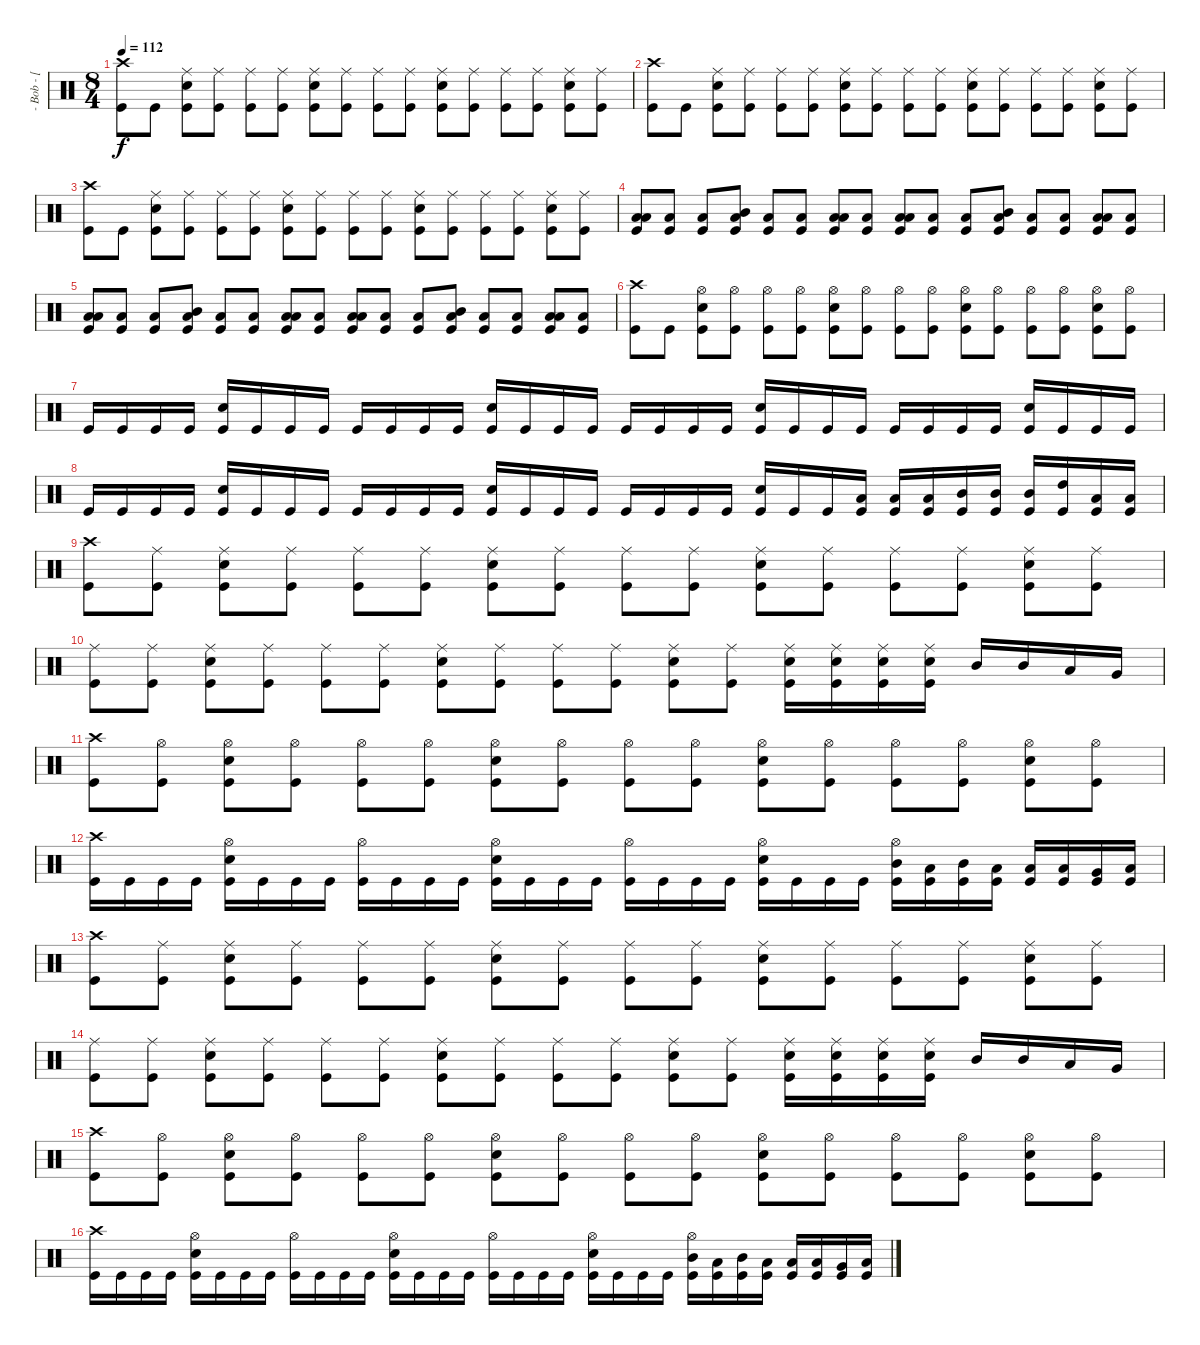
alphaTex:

\track ("- Bob - [ Drum ]" "- Bob - [ ") {instrument percussion}
\staff {score}
\articulation defaults
\ts (8 4)
\tempo 112
\clef neutral
\ks c
("Kick (hit)" "Crash high (hit)").8{dy f} "Kick (hit)".8 ("Kick (hit)" "Snare (hit) 2" "Ride (middle)").8 ("Kick (hit)" "Ride (middle)").8 ("Kick (hit)" "Ride (middle)").8 ("Kick (hit)" "Ride (middle)").8 ("Kick (hit)" "Snare (hit) 2" "Ride (middle)").8 ("Kick (hit)" "Ride (middle)").8 ("Kick (hit)" "Ride (middle)").8 ("Kick (hit)" "Ride (middle)").8 ("Kick (hit)" "Snare (hit) 2" "Ride (middle)").8 ("Kick (hit)" "Ride (middle)").8 ("Kick (hit)" "Ride (middle)").8 ("Kick (hit)" "Ride (middle)").8 ("Kick (hit)" "Snare (hit) 2" "Ride (middle)").8 ("Kick (hit)" "Ride (middle)").8 |
("Kick (hit)" "Crash high (hit)").8 "Kick (hit)".8 ("Kick (hit)" "Snare (hit) 2" "Ride (middle)").8 ("Kick (hit)" "Ride (middle)").8 ("Kick (hit)" "Ride (middle)").8 ("Kick (hit)" "Ride (middle)").8 ("Kick (hit)" "Snare (hit) 2" "Ride (middle)").8 ("Kick (hit)" "Ride (middle)").8 ("Kick (hit)" "Ride (middle)").8 ("Kick (hit)" "Ride (middle)").8 ("Kick (hit)" "Snare (hit) 2" "Ride (middle)").8 ("Kick (hit)" "Ride (middle)").8 ("Kick (hit)" "Ride (middle)").8 ("Kick (hit)" "Ride (middle)").8 ("Kick (hit)" "Snare (hit) 2" "Ride (middle)").8 ("Kick (hit)" "Ride (middle)").8 |
("Kick (hit)" "Crash high (hit)").8 "Kick (hit)".8 ("Kick (hit)" "Snare (hit) 2" "Ride (middle)").8 ("Kick (hit)" "Ride (middle)").8 ("Kick (hit)" "Ride (middle)").8 ("Kick (hit)" "Ride (middle)").8 ("Kick (hit)" "Snare (hit) 2" "Ride (middle)").8 ("Kick (hit)" "Ride (middle)").8 ("Kick (hit)" "Ride (middle)").8 ("Kick (hit)" "Ride (middle)").8 ("Kick (hit)" "Snare (hit) 2" "Ride (middle)").8 ("Kick (hit)" "Ride (middle)").8 ("Kick (hit)" "Ride (middle)").8 ("Kick (hit)" "Ride (middle)").8 ("Kick (hit)" "Snare (hit) 2" "Ride (middle)").8 ("Kick (hit)" "Ride (middle)").8 |
("Low Floor Tom (hit)" "Low Tom (hit)" "Kick (hit)").8 ("Low Floor Tom (hit)" "Kick (hit)").8 ("Low Floor Tom (hit)" "Kick (hit)").8 ("Low Floor Tom (hit)" "Mid Tom (hit)" "Kick (hit)").8 ("Low Floor Tom (hit)" "Kick (hit)").8 ("Low Floor Tom (hit)" "Kick (hit)").8 ("Low Floor Tom (hit)" "Low Tom (hit)" "Kick (hit)").8 ("Low Floor Tom (hit)" "Kick (hit)").8 ("Low Floor Tom (hit)" "Low Tom (hit)" "Kick (hit)").8 ("Low Floor Tom (hit)" "Kick (hit)").8 ("Low Floor Tom (hit)" "Kick (hit)").8 ("Low Floor Tom (hit)" "Mid Tom (hit)" "Kick (hit)").8 ("Low Floor Tom (hit)" "Kick (hit)").8 ("Low Floor Tom (hit)" "Kick (hit)").8 ("Low Floor Tom (hit)" "Low Tom (hit)" "Kick (hit)").8 ("Low Floor Tom (hit)" "Kick (hit)").8 |
("Low Floor Tom (hit)" "Low Tom (hit)" "Kick (hit)").8 ("Low Floor Tom (hit)" "Kick (hit)").8 ("Low Floor Tom (hit)" "Kick (hit)").8 ("Low Floor Tom (hit)" "Mid Tom (hit)" "Kick (hit)").8 ("Low Floor Tom (hit)" "Kick (hit)").8 ("Low Floor Tom (hit)" "Kick (hit)").8 ("Low Floor Tom (hit)" "Low Tom (hit)" "Kick (hit)").8 ("Low Floor Tom (hit)" "Kick (hit)").8 ("Low Floor Tom (hit)" "Low Tom (hit)" "Kick (hit)").8 ("Low Floor Tom (hit)" "Kick (hit)").8 ("Low Floor Tom (hit)" "Kick (hit)").8 ("Low Floor Tom (hit)" "Mid Tom (hit)" "Kick (hit)").8 ("Low Floor Tom (hit)" "Kick (hit)").8 ("Low Floor Tom (hit)" "Kick (hit)").8 ("Low Floor Tom (hit)" "Low Tom (hit)" "Kick (hit)").8 ("Low Floor Tom (hit)" "Kick (hit)").8 |
("Kick (hit)" "Crash high (hit)").8 "Kick (hit)".8 ("Kick (hit)" "Snare (hit) 2" "Hi-Hat (open)").8 ("Kick (hit)" "Hi-Hat (open)").8 ("Kick (hit)" "Hi-Hat (open)").8 ("Kick (hit)" "Hi-Hat (open)").8 ("Kick (hit)" "Snare (hit) 2" "Hi-Hat (open)").8 ("Kick (hit)" "Hi-Hat (open)").8 ("Kick (hit)" "Hi-Hat (open)").8 ("Kick (hit)" "Hi-Hat (open)").8 ("Kick (hit)" "Snare (hit) 2" "Hi-Hat (open)").8 ("Kick (hit)" "Hi-Hat (open)").8 ("Kick (hit)" "Hi-Hat (open)").8 ("Kick (hit)" "Hi-Hat (open)").8 ("Kick (hit)" "Snare (hit) 2" "Hi-Hat (open)").8 ("Kick (hit)" "Hi-Hat (open)").8 |
"Kick (hit)".16 "Kick (hit)".16 "Kick (hit)".16 "Kick (hit)".16 ("Kick (hit)" "Snare (hit) 2").16 "Kick (hit)".16 "Kick (hit)".16 "Kick (hit)".16 "Kick (hit)".16 "Kick (hit)".16 "Kick (hit)".16 "Kick (hit)".16 ("Kick (hit)" "Snare (hit) 2").16 "Kick (hit)".16 "Kick (hit)".16 "Kick (hit)".16 "Kick (hit)".16 "Kick (hit)".16 "Kick (hit)".16 "Kick (hit)".16 ("Kick (hit)" "Snare (hit) 2").16 "Kick (hit)".16 "Kick (hit)".16 "Kick (hit)".16 "Kick (hit)".16 "Kick (hit)".16 "Kick (hit)".16 "Kick (hit)".16 ("Kick (hit)" "Snare (hit) 2").16 "Kick (hit)".16 "Kick (hit)".16 "Kick (hit)".16 |
"Kick (hit)".16 "Kick (hit)".16 "Kick (hit)".16 "Kick (hit)".16 ("Kick (hit)" "Snare (hit) 2").16 "Kick (hit)".16 "Kick (hit)".16 "Kick (hit)".16 "Kick (hit)".16 "Kick (hit)".16 "Kick (hit)".16 "Kick (hit)".16 ("Kick (hit)" "Snare (hit) 2").16 "Kick (hit)".16 "Kick (hit)".16 "Kick (hit)".16 "Kick (hit)".16 "Kick (hit)".16 "Kick (hit)".16 "Kick (hit)".16 ("Kick (hit)" "Snare (hit) 2").16 "Kick (hit)".16 "Kick (hit)".16 ("Kick (hit)" "Low Tom (hit)").16 ("Kick (hit)" "Low Tom (hit)").16 ("Kick (hit)" "Low Tom (hit)").16 ("Kick (hit)" "Mid Tom (hit)").16 ("Kick (hit)" "Mid Tom (hit)").16 ("Kick (hit)" "Mid Tom (hit)").16 ("Kick (hit)" "High Tom (hit)").16 ("Kick (hit)" "Low Floor Tom (hit)").16 ("Kick (hit)" "Low Floor Tom (hit)").16 |
("Kick (hit)" "Crash high (hit)").8 ("Kick (hit)" "Ride (middle)").8 ("Kick (hit)" "Snare (hit) 2" "Ride (middle)").8 ("Kick (hit)" "Ride (middle)").8 ("Kick (hit)" "Ride (middle)").8 ("Kick (hit)" "Ride (middle)").8 ("Kick (hit)" "Snare (hit) 2" "Ride (middle)").8 ("Kick (hit)" "Ride (middle)").8 ("Kick (hit)" "Ride (middle)").8 ("Kick (hit)" "Ride (middle)").8 ("Kick (hit)" "Snare (hit) 2" "Ride (middle)").8 ("Kick (hit)" "Ride (middle)").8 ("Kick (hit)" "Ride (middle)").8 ("Kick (hit)" "Ride (middle)").8 ("Kick (hit)" "Snare (hit) 2" "Ride (middle)").8 ("Kick (hit)" "Ride (middle)").8 |
("Kick (hit)" "Ride (middle)").8 ("Kick (hit)" "Ride (middle)").8 ("Kick (hit)" "Snare (hit) 2" "Ride (middle)").8 ("Kick (hit)" "Ride (middle)").8 ("Kick (hit)" "Ride (middle)").8 ("Kick (hit)" "Ride (middle)").8 ("Kick (hit)" "Snare (hit) 2" "Ride (middle)").8 ("Kick (hit)" "Ride (middle)").8 ("Kick (hit)" "Ride (middle)").8 ("Kick (hit)" "Ride (middle)").8 ("Kick (hit)" "Snare (hit) 2" "Ride (middle)").8 ("Kick (hit)" "Ride (middle)").8 ("Kick (hit)" "Snare (hit) 2" "Ride (middle)").16 ("Kick (hit)" "Snare (hit) 2" "Ride (middle)").16 ("Kick (hit)" "Snare (hit) 2" "Ride (middle)").16 ("Kick (hit)" "Snare (hit) 2" "Ride (middle)").16 "Mid Tom (hit)".16 "Mid Tom (hit)".16 "Low Tom (hit)".16 "Very Low Tom (hit)".16 |
("Kick (hit)" "Crash high (hit)").8 ("Kick (hit)" "Hi-Hat (open)").8 ("Kick (hit)" "Snare (hit) 2" "Hi-Hat (open)").8 ("Kick (hit)" "Hi-Hat (open)").8 ("Kick (hit)" "Hi-Hat (open)").8 ("Kick (hit)" "Hi-Hat (open)").8 ("Kick (hit)" "Snare (hit) 2" "Hi-Hat (open)").8 ("Kick (hit)" "Hi-Hat (open)").8 ("Kick (hit)" "Hi-Hat (open)").8 ("Kick (hit)" "Hi-Hat (open)").8 ("Kick (hit)" "Snare (hit) 2" "Hi-Hat (open)").8 ("Kick (hit)" "Hi-Hat (open)").8 ("Kick (hit)" "Hi-Hat (open)").8 ("Kick (hit)" "Hi-Hat (open)").8 ("Kick (hit)" "Snare (hit) 2" "Hi-Hat (open)").8 ("Kick (hit)" "Hi-Hat (open)").8 |
("Kick (hit)" "Crash high (hit)").16 "Kick (hit)".16 "Kick (hit)".16 "Kick (hit)".16 ("Kick (hit)" "Snare (hit) 2" "Hi-Hat (open)").16 "Kick (hit)".16 "Kick (hit)".16 "Kick (hit)".16 ("Kick (hit)" "Hi-Hat (open)").16 "Kick (hit)".16 "Kick (hit)".16 "Kick (hit)".16 ("Kick (hit)" "Snare (hit) 2" "Hi-Hat (open)").16 "Kick (hit)".16 "Kick (hit)".16 "Kick (hit)".16 ("Kick (hit)" "Hi-Hat (open)").16 "Kick (hit)".16 "Kick (hit)".16 "Kick (hit)".16 ("Kick (hit)" "Snare (hit) 2" "Hi-Hat (open)").16 "Kick (hit)".16 "Kick (hit)".16 "Kick (hit)".16 ("Kick (hit)" "Mid Tom (hit)" "Hi-Hat (open)").16 ("Kick (hit)" "Low Tom (hit)").16 ("Kick (hit)" "Mid Tom (hit)").16 ("Kick (hit)" "Low Tom (hit)").16 ("Kick (hit)" "Low Tom (hit)").16 ("Kick (hit)" "Low Tom (hit)").16 ("Kick (hit)" "Very Low Tom (hit)").16 ("Kick (hit)" "Low Floor Tom (hit)").16 |
("Kick (hit)" "Crash high (hit)").8 ("Kick (hit)" "Ride (middle)").8 ("Kick (hit)" "Snare (hit) 2" "Ride (middle)").8 ("Kick (hit)" "Ride (middle)").8 ("Kick (hit)" "Ride (middle)").8 ("Kick (hit)" "Ride (middle)").8 ("Kick (hit)" "Snare (hit) 2" "Ride (middle)").8 ("Kick (hit)" "Ride (middle)").8 ("Kick (hit)" "Ride (middle)").8 ("Kick (hit)" "Ride (middle)").8 ("Kick (hit)" "Snare (hit) 2" "Ride (middle)").8 ("Kick (hit)" "Ride (middle)").8 ("Kick (hit)" "Ride (middle)").8 ("Kick (hit)" "Ride (middle)").8 ("Kick (hit)" "Snare (hit) 2" "Ride (middle)").8 ("Kick (hit)" "Ride (middle)").8 |
("Kick (hit)" "Ride (middle)").8 ("Kick (hit)" "Ride (middle)").8 ("Kick (hit)" "Snare (hit) 2" "Ride (middle)").8 ("Kick (hit)" "Ride (middle)").8 ("Kick (hit)" "Ride (middle)").8 ("Kick (hit)" "Ride (middle)").8 ("Kick (hit)" "Snare (hit) 2" "Ride (middle)").8 ("Kick (hit)" "Ride (middle)").8 ("Kick (hit)" "Ride (middle)").8 ("Kick (hit)" "Ride (middle)").8 ("Kick (hit)" "Snare (hit) 2" "Ride (middle)").8 ("Kick (hit)" "Ride (middle)").8 ("Kick (hit)" "Snare (hit) 2" "Ride (middle)").16 ("Kick (hit)" "Snare (hit) 2" "Ride (middle)").16 ("Kick (hit)" "Snare (hit) 2" "Ride (middle)").16 ("Kick (hit)" "Snare (hit) 2" "Ride (middle)").16 "Mid Tom (hit)".16 "Mid Tom (hit)".16 "Low Tom (hit)".16 "Very Low Tom (hit)".16 |
("Kick (hit)" "Crash high (hit)").8 ("Kick (hit)" "Hi-Hat (open)").8 ("Kick (hit)" "Snare (hit) 2" "Hi-Hat (open)").8 ("Kick (hit)" "Hi-Hat (open)").8 ("Kick (hit)" "Hi-Hat (open)").8 ("Kick (hit)" "Hi-Hat (open)").8 ("Kick (hit)" "Snare (hit) 2" "Hi-Hat (open)").8 ("Kick (hit)" "Hi-Hat (open)").8 ("Kick (hit)" "Hi-Hat (open)").8 ("Kick (hit)" "Hi-Hat (open)").8 ("Kick (hit)" "Snare (hit) 2" "Hi-Hat (open)").8 ("Kick (hit)" "Hi-Hat (open)").8 ("Kick (hit)" "Hi-Hat (open)").8 ("Kick (hit)" "Hi-Hat (open)").8 ("Kick (hit)" "Snare (hit) 2" "Hi-Hat (open)").8 ("Kick (hit)" "Hi-Hat (open)").8 |
("Kick (hit)" "Crash high (hit)").16 "Kick (hit)".16 "Kick (hit)".16 "Kick (hit)".16 ("Kick (hit)" "Snare (hit) 2" "Hi-Hat (open)").16 "Kick (hit)".16 "Kick (hit)".16 "Kick (hit)".16 ("Kick (hit)" "Hi-Hat (open)").16 "Kick (hit)".16 "Kick (hit)".16 "Kick (hit)".16 ("Kick (hit)" "Snare (hit) 2" "Hi-Hat (open)").16 "Kick (hit)".16 "Kick (hit)".16 "Kick (hit)".16 ("Kick (hit)" "Hi-Hat (open)").16 "Kick (hit)".16 "Kick (hit)".16 "Kick (hit)".16 ("Kick (hit)" "Snare (hit) 2" "Hi-Hat (open)").16 "Kick (hit)".16 "Kick (hit)".16 "Kick (hit)".16 ("Kick (hit)" "Mid Tom (hit)" "Hi-Hat (open)").16 ("Kick (hit)" "Low Tom (hit)").16 ("Kick (hit)" "Mid Tom (hit)").16 ("Kick (hit)" "Low Tom (hit)").16 ("Kick (hit)" "Low Tom (hit)").16 ("Kick (hit)" "Low Tom (hit)").16 ("Kick (hit)" "Very Low Tom (hit)").16 ("Kick (hit)" "Low Floor Tom (hit)").16
